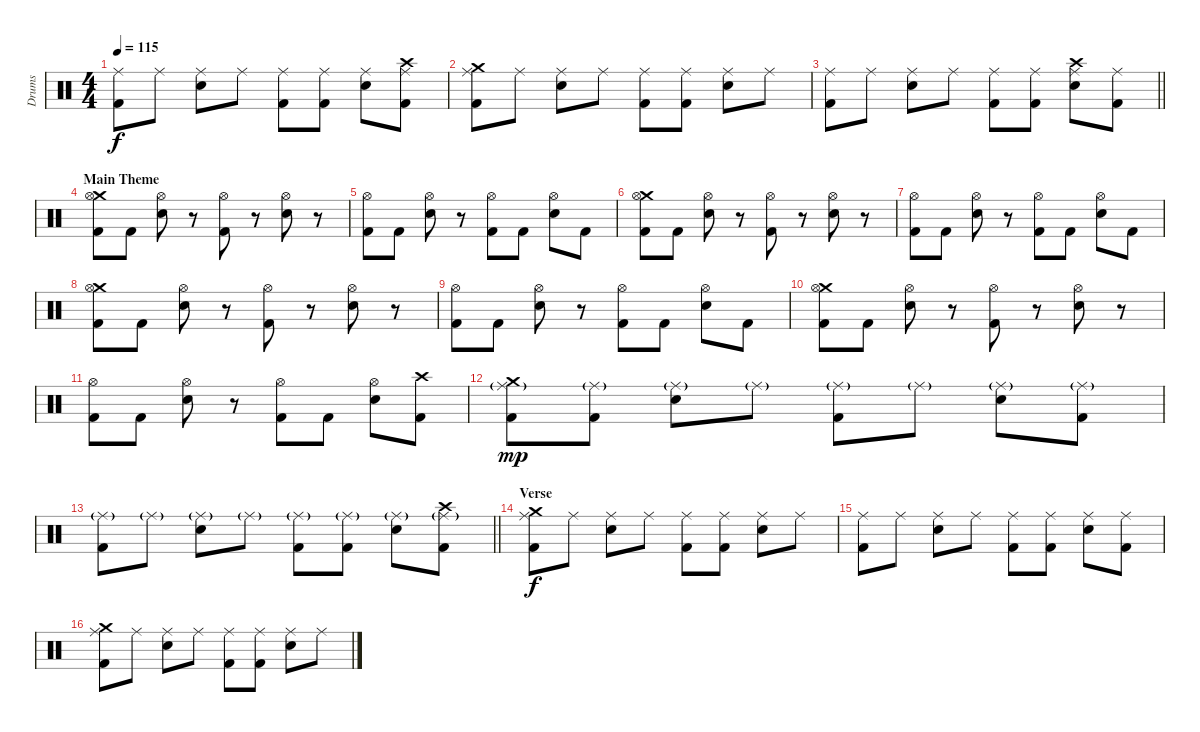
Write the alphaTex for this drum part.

\track ("Drums" "Drums") {instrument percussion}
\staff {score}
\articulation defaults
\ts (4 4)
\tempo 115
\clef neutral
\ks c
("Ride (middle)" "Kick (hit) 2").8{dy f} "Ride (middle)".8 ("Ride (middle)" "Snare (hit) 2").8 "Ride (middle)".8 ("Ride (middle)" "Kick (hit) 2").8 ("Ride (middle)" "Kick (hit) 2").8 ("Ride (middle)" "Snare (hit) 2").8 ("Crash high (hit)" "Ride (middle)" "Kick (hit) 2").8 |
("Crash medium (hit)" "Ride (middle)" "Kick (hit) 2").8 "Ride (middle)".8 ("Ride (middle)" "Snare (hit) 2").8 "Ride (middle)".8 ("Ride (middle)" "Kick (hit) 2").8 ("Ride (middle)" "Kick (hit) 2").8 ("Ride (middle)" "Snare (hit) 2").8 "Ride (middle)".8 |
\barLineRight lightlight
("Ride (middle)" "Kick (hit) 2").8 "Ride (middle)".8 ("Ride (middle)" "Snare (hit) 2").8 "Ride (middle)".8 ("Ride (middle)" "Kick (hit) 2").8 ("Ride (middle)" "Kick (hit) 2").8 ("Crash high (hit)" "Ride (middle)" "Snare (hit) 2").8 ("Ride (middle)" "Kick (hit) 2").8 |
\section ("" "Main Theme")
("Crash medium (hit)" "Hi-Hat (open)" "Kick (hit) 2").8 "Kick (hit) 2".8 ("Hi-Hat (open)" "Snare (hit) 2").8 r.8 ("Hi-Hat (open)" "Kick (hit) 2").8 r.8 ("Hi-Hat (open)" "Snare (hit) 2").8 r.8 |
("Hi-Hat (open)" "Kick (hit) 2").8 "Kick (hit) 2".8 ("Hi-Hat (open)" "Snare (hit) 2").8 r.8 ("Hi-Hat (open)" "Kick (hit) 2").8 "Kick (hit) 2".8 ("Hi-Hat (open)" "Snare (hit) 2").8 "Kick (hit) 2".8 |
("Crash medium (hit)" "Hi-Hat (open)" "Kick (hit) 2").8 "Kick (hit) 2".8 ("Hi-Hat (open)" "Snare (hit) 2").8 r.8 ("Hi-Hat (open)" "Kick (hit) 2").8 r.8 ("Hi-Hat (open)" "Snare (hit) 2").8 r.8 |
("Hi-Hat (open)" "Kick (hit) 2").8 "Kick (hit) 2".8 ("Hi-Hat (open)" "Snare (hit) 2").8 r.8 ("Hi-Hat (open)" "Kick (hit) 2").8 "Kick (hit) 2".8 ("Hi-Hat (open)" "Snare (hit) 2").8 "Kick (hit) 2".8 |
("Crash medium (hit)" "Hi-Hat (open)" "Kick (hit) 2").8 "Kick (hit) 2".8 ("Hi-Hat (open)" "Snare (hit) 2").8 r.8 ("Hi-Hat (open)" "Kick (hit) 2").8 r.8 ("Hi-Hat (open)" "Snare (hit) 2").8 r.8 |
("Hi-Hat (open)" "Kick (hit) 2").8 "Kick (hit) 2".8 ("Hi-Hat (open)" "Snare (hit) 2").8 r.8 ("Hi-Hat (open)" "Kick (hit) 2").8 "Kick (hit) 2".8 ("Hi-Hat (open)" "Snare (hit) 2").8 "Kick (hit) 2".8 |
("Crash medium (hit)" "Hi-Hat (open)" "Kick (hit) 2").8 "Kick (hit) 2".8 ("Hi-Hat (open)" "Snare (hit) 2").8 r.8 ("Hi-Hat (open)" "Kick (hit) 2").8 r.8 ("Hi-Hat (open)" "Snare (hit) 2").8 r.8 |
("Hi-Hat (open)" "Kick (hit) 2").8 "Kick (hit) 2".8 ("Hi-Hat (open)" "Snare (hit) 2").8 r.8 ("Hi-Hat (open)" "Kick (hit) 2").8 "Kick (hit) 2".8 ("Hi-Hat (open)" "Snare (hit) 2").8 ("Crash high (hit)" "Kick (hit) 2").8 |
("Crash medium (hit)" "Ride (middle)"{g} "Kick (hit) 2").8{dy mp} ("Ride (middle)"{g} "Kick (hit) 2").8 ("Ride (middle)"{g} "Snare (hit) 2").8 "Ride (middle)"{g}.8 ("Ride (middle)"{g} "Kick (hit) 2").8 "Ride (middle)"{g}.8 ("Ride (middle)"{g} "Snare (hit) 2").8 ("Ride (middle)"{g} "Kick (hit) 2").8 |
\barLineRight lightlight
("Ride (middle)"{g} "Kick (hit) 2").8 "Ride (middle)"{g}.8 ("Ride (middle)"{g} "Snare (hit) 2").8 "Ride (middle)"{g}.8 ("Ride (middle)"{g} "Kick (hit) 2").8 ("Ride (middle)"{g} "Kick (hit) 2").8 ("Ride (middle)"{g} "Snare (hit) 2").8 ("Crash high (hit)" "Ride (middle)"{g} "Kick (hit) 2").8 |
\section ("" "Verse")
("Crash medium (hit)" "Ride (middle)" "Kick (hit) 2").8{dy f} "Ride (middle)".8 ("Ride (middle)" "Snare (hit) 2").8 "Ride (middle)".8 ("Ride (middle)" "Kick (hit) 2").8 ("Ride (middle)" "Kick (hit) 2").8 ("Ride (middle)" "Snare (hit) 2").8 "Ride (middle)".8 |
("Ride (middle)" "Kick (hit) 2").8 "Ride (middle)".8 ("Ride (middle)" "Snare (hit) 2").8 "Ride (middle)".8 ("Ride (middle)" "Kick (hit) 2").8 ("Ride (middle)" "Kick (hit) 2").8 ("Ride (middle)" "Snare (hit) 2").8 ("Ride (middle)" "Kick (hit) 2").8 |
("Crash medium (hit)" "Ride (middle)" "Kick (hit) 2").8 "Ride (middle)".8 ("Ride (middle)" "Snare (hit) 2").8 "Ride (middle)".8 ("Ride (middle)" "Kick (hit) 2").8 ("Ride (middle)" "Kick (hit) 2").8 ("Ride (middle)" "Snare (hit) 2").8 "Ride (middle)".8
